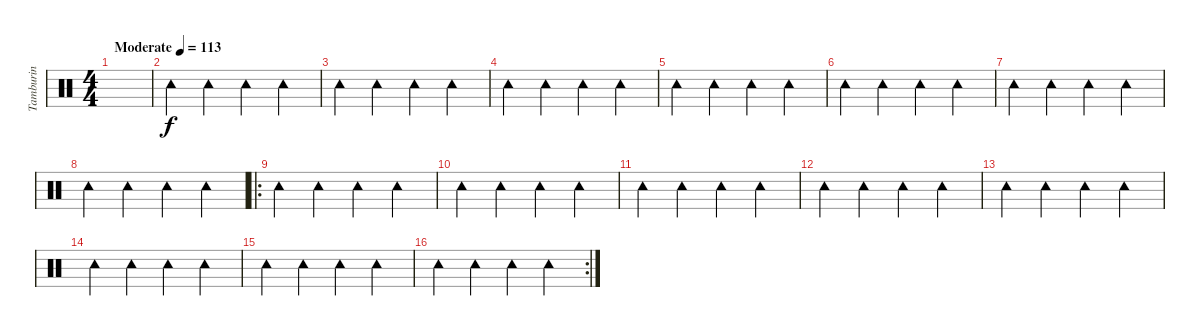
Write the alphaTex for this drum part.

\track ("Tamburin" "Tamburin") {instrument percussion}
\staff {score}
\articulation defaults
\ts (4 4)
\tempo (113 "Moderate")
\clef neutral
\ks c
|
"Tambourine (hit)".4 "Tambourine (hit)".4 "Tambourine (hit)".4 "Tambourine (hit)".4 |
"Tambourine (hit)".4 "Tambourine (hit)".4 "Tambourine (hit)".4 "Tambourine (hit)".4 |
"Tambourine (hit)".4 "Tambourine (hit)".4 "Tambourine (hit)".4 "Tambourine (hit)".4 |
"Tambourine (hit)".4 "Tambourine (hit)".4 "Tambourine (hit)".4 "Tambourine (hit)".4 |
"Tambourine (hit)".4 "Tambourine (hit)".4 "Tambourine (hit)".4 "Tambourine (hit)".4 |
"Tambourine (hit)".4 "Tambourine (hit)".4 "Tambourine (hit)".4 "Tambourine (hit)".4 |
"Tambourine (hit)".4 "Tambourine (hit)".4 "Tambourine (hit)".4 "Tambourine (hit)".4 |
\ro "Tambourine (hit)".4 "Tambourine (hit)".4 "Tambourine (hit)".4 "Tambourine (hit)".4
|
"Tambourine (hit)".4 "Tambourine (hit)".4 "Tambourine (hit)".4 "Tambourine (hit)".4 |
"Tambourine (hit)".4 "Tambourine (hit)".4 "Tambourine (hit)".4 "Tambourine (hit)".4 |
"Tambourine (hit)".4 "Tambourine (hit)".4 "Tambourine (hit)".4 "Tambourine (hit)".4 |
"Tambourine (hit)".4 "Tambourine (hit)".4 "Tambourine (hit)".4 "Tambourine (hit)".4 |
"Tambourine (hit)".4 "Tambourine (hit)".4 "Tambourine (hit)".4 "Tambourine (hit)".4 |
"Tambourine (hit)".4 "Tambourine (hit)".4 "Tambourine (hit)".4 "Tambourine (hit)".4 |
\rc 2 "Tambourine (hit)".4 "Tambourine (hit)".4 "Tambourine (hit)".4 "Tambourine (hit)".4
